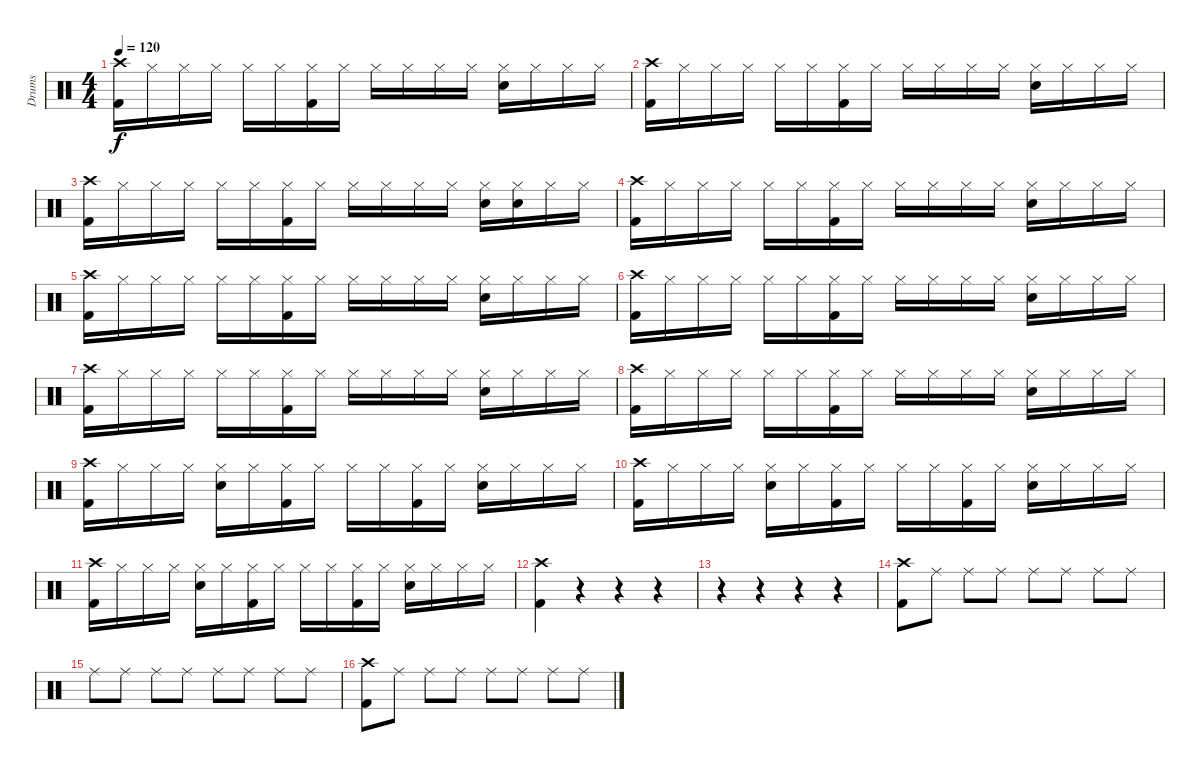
\track ("Drums" "Drums") {instrument percussion}
\staff {score}
\articulation defaults
\ts (4 4)
\tempo 120
\clef neutral
\ks c
("Crash high (hit)" "Kick (hit) 2").16{dy f} "Hi-Hat (closed)".16 "Hi-Hat (closed)".16 "Hi-Hat (closed)".16 "Hi-Hat (closed)".16 "Hi-Hat (closed)".16 ("Hi-Hat (closed)" "Kick (hit) 2").16 "Hi-Hat (closed)".16 "Hi-Hat (closed)".16 "Hi-Hat (closed)".16 "Hi-Hat (closed)".16 "Hi-Hat (closed)".16 ("Hi-Hat (closed)" "Snare (hit) 2").16 "Hi-Hat (closed)".16 "Hi-Hat (closed)".16 "Hi-Hat (closed)".16 |
("Crash high (hit)" "Kick (hit) 2").16 "Hi-Hat (closed)".16 "Hi-Hat (closed)".16 "Hi-Hat (closed)".16 "Hi-Hat (closed)".16 "Hi-Hat (closed)".16 ("Hi-Hat (closed)" "Kick (hit) 2").16 "Hi-Hat (closed)".16 "Hi-Hat (closed)".16 "Hi-Hat (closed)".16 "Hi-Hat (closed)".16 "Hi-Hat (closed)".16 ("Hi-Hat (closed)" "Snare (hit) 2").16 "Hi-Hat (closed)".16 "Hi-Hat (closed)".16 "Hi-Hat (closed)".16 |
("Crash high (hit)" "Kick (hit) 2").16 "Hi-Hat (closed)".16 "Hi-Hat (closed)".16 "Hi-Hat (closed)".16 "Hi-Hat (closed)".16 "Hi-Hat (closed)".16 ("Hi-Hat (closed)" "Kick (hit) 2").16 "Hi-Hat (closed)".16 "Hi-Hat (closed)".16 "Hi-Hat (closed)".16 "Hi-Hat (closed)".16 "Hi-Hat (closed)".16 ("Hi-Hat (closed)" "Snare (hit) 2").16 ("Hi-Hat (closed)" "Snare (hit) 2").16 "Hi-Hat (closed)".16 "Hi-Hat (closed)".16 |
("Crash high (hit)" "Kick (hit) 2").16 "Hi-Hat (closed)".16 "Hi-Hat (closed)".16 "Hi-Hat (closed)".16 "Hi-Hat (closed)".16 "Hi-Hat (closed)".16 ("Hi-Hat (closed)" "Kick (hit) 2").16 "Hi-Hat (closed)".16 "Hi-Hat (closed)".16 "Hi-Hat (closed)".16 "Hi-Hat (closed)".16 "Hi-Hat (closed)".16 ("Hi-Hat (closed)" "Snare (hit) 2").16 "Hi-Hat (closed)".16 "Hi-Hat (closed)".16 "Hi-Hat (closed)".16 |
("Crash high (hit)" "Kick (hit) 2").16 "Hi-Hat (closed)".16 "Hi-Hat (closed)".16 "Hi-Hat (closed)".16 "Hi-Hat (closed)".16 "Hi-Hat (closed)".16 ("Hi-Hat (closed)" "Kick (hit) 2").16 "Hi-Hat (closed)".16 "Hi-Hat (closed)".16 "Hi-Hat (closed)".16 "Hi-Hat (closed)".16 "Hi-Hat (closed)".16 ("Hi-Hat (closed)" "Snare (hit) 2").16 "Hi-Hat (closed)".16 "Hi-Hat (closed)".16 "Hi-Hat (closed)".16 |
("Crash high (hit)" "Kick (hit) 2").16 "Hi-Hat (closed)".16 "Hi-Hat (closed)".16 "Hi-Hat (closed)".16 "Hi-Hat (closed)".16 "Hi-Hat (closed)".16 ("Hi-Hat (closed)" "Kick (hit) 2").16 "Hi-Hat (closed)".16 "Hi-Hat (closed)".16 "Hi-Hat (closed)".16 "Hi-Hat (closed)".16 "Hi-Hat (closed)".16 ("Hi-Hat (closed)" "Snare (hit) 2").16 "Hi-Hat (closed)".16 "Hi-Hat (closed)".16 "Hi-Hat (closed)".16 |
("Crash high (hit)" "Kick (hit) 2").16 "Hi-Hat (closed)".16 "Hi-Hat (closed)".16 "Hi-Hat (closed)".16 "Hi-Hat (closed)".16 "Hi-Hat (closed)".16 ("Hi-Hat (closed)" "Kick (hit) 2").16 "Hi-Hat (closed)".16 "Hi-Hat (closed)".16 "Hi-Hat (closed)".16 "Hi-Hat (closed)".16 "Hi-Hat (closed)".16 ("Hi-Hat (closed)" "Snare (hit) 2").16 "Hi-Hat (closed)".16 "Hi-Hat (closed)".16 "Hi-Hat (closed)".16 |
("Crash high (hit)" "Kick (hit) 2").16 "Hi-Hat (closed)".16 "Hi-Hat (closed)".16 "Hi-Hat (closed)".16 "Hi-Hat (closed)".16 "Hi-Hat (closed)".16 ("Hi-Hat (closed)" "Kick (hit) 2").16 "Hi-Hat (closed)".16 "Hi-Hat (closed)".16 "Hi-Hat (closed)".16 "Hi-Hat (closed)".16 "Hi-Hat (closed)".16 ("Hi-Hat (closed)" "Snare (hit) 2").16 "Hi-Hat (closed)".16 "Hi-Hat (closed)".16 "Hi-Hat (closed)".16 |
("Crash high (hit)" "Kick (hit) 2").16 "Hi-Hat (closed)".16 "Hi-Hat (closed)".16 "Hi-Hat (closed)".16 ("Hi-Hat (closed)" "Snare (hit) 2").16 "Hi-Hat (closed)".16 ("Hi-Hat (closed)" "Kick (hit) 2").16 "Hi-Hat (closed)".16 "Hi-Hat (closed)".16 "Hi-Hat (closed)".16 ("Hi-Hat (closed)" "Kick (hit) 2").16 "Hi-Hat (closed)".16 ("Hi-Hat (closed)" "Snare (hit) 2").16 "Hi-Hat (closed)".16 "Hi-Hat (closed)".16 "Hi-Hat (closed)".16 |
("Crash high (hit)" "Kick (hit) 2").16 "Hi-Hat (closed)".16 "Hi-Hat (closed)".16 "Hi-Hat (closed)".16 ("Hi-Hat (closed)" "Snare (hit) 2").16 "Hi-Hat (closed)".16 ("Hi-Hat (closed)" "Kick (hit) 2").16 "Hi-Hat (closed)".16 "Hi-Hat (closed)".16 "Hi-Hat (closed)".16 ("Hi-Hat (closed)" "Kick (hit) 2").16 "Hi-Hat (closed)".16 ("Hi-Hat (closed)" "Snare (hit) 2").16 "Hi-Hat (closed)".16 "Hi-Hat (closed)".16 "Hi-Hat (closed)".16 |
("Crash high (hit)" "Kick (hit) 2").16 "Hi-Hat (closed)".16 "Hi-Hat (closed)".16 "Hi-Hat (closed)".16 ("Hi-Hat (closed)" "Snare (hit) 2").16 "Hi-Hat (closed)".16 ("Hi-Hat (closed)" "Kick (hit) 2").16 "Hi-Hat (closed)".16 "Hi-Hat (closed)".16 "Hi-Hat (closed)".16 ("Hi-Hat (closed)" "Kick (hit) 2").16 "Hi-Hat (closed)".16 ("Hi-Hat (closed)" "Snare (hit) 2").16 "Hi-Hat (closed)".16 "Hi-Hat (closed)".16 "Hi-Hat (closed)".16 |
("Crash high (hit)" "Kick (hit) 2").4 r.4 r.4 r.4 |
r.4 r.4 r.4 r.4 |
("Crash high (hit)" "Kick (hit) 2").8 "Ride (middle)".8 "Ride (middle)".8 "Ride (middle)".8 "Ride (middle)".8 "Ride (middle)".8 "Ride (middle)".8 "Ride (middle)".8 |
"Ride (middle)".8 "Ride (middle)".8 "Ride (middle)".8 "Ride (middle)".8 "Ride (middle)".8 "Ride (middle)".8 "Ride (middle)".8 "Ride (middle)".8 |
("Crash high (hit)" "Kick (hit) 2").8 "Ride (middle)".8 "Ride (middle)".8 "Ride (middle)".8 "Ride (middle)".8 "Ride (middle)".8 "Ride (middle)".8 "Ride (middle)".8
